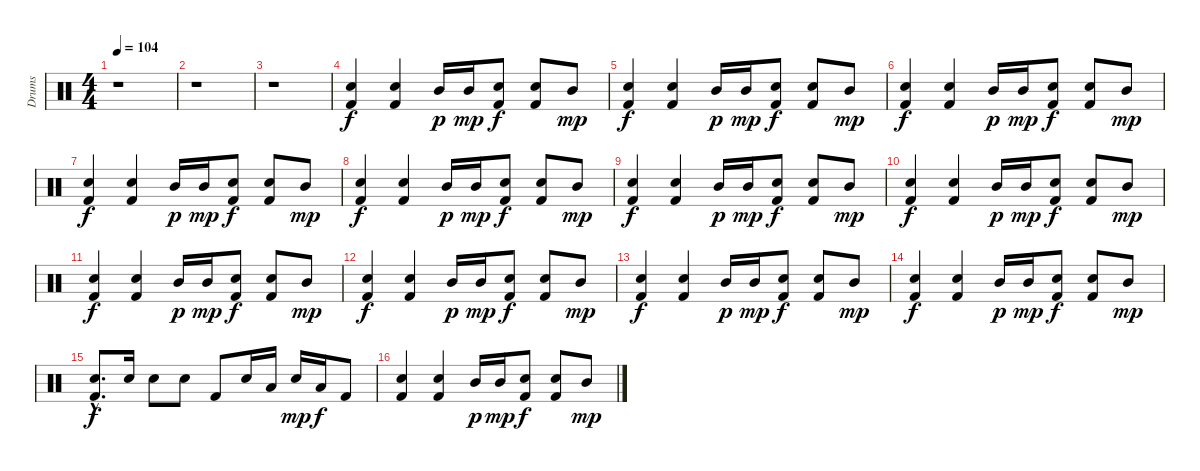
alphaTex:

\track ("Drums" "Drums") {instrument percussion}
\staff {score}
\articulation defaults
\ts (4 4)
\tempo 104
\clef neutral
\ks c
r.1{dy f} |
r.1 |
r.1 |
("Snare (hit) 2" "Kick (hit) 2").4 ("Snare (hit) 2" "Kick (hit) 2").4 "Mid Tom (hit)".16{dy p} "Mid Tom (hit)".16{dy mp} ("Snare (hit) 2" "Kick (hit) 2").8{dy f} ("Snare (hit) 2" "Kick (hit) 2").8 "Mid Tom (hit)".8{dy mp} |
("Snare (hit) 2" "Kick (hit) 2").4{dy f} ("Snare (hit) 2" "Kick (hit) 2").4 "Mid Tom (hit)".16{dy p} "Mid Tom (hit)".16{dy mp} ("Snare (hit) 2" "Kick (hit) 2").8{dy f} ("Snare (hit) 2" "Kick (hit) 2").8 "Mid Tom (hit)".8{dy mp} |
("Snare (hit) 2" "Kick (hit) 2").4{dy f} ("Snare (hit) 2" "Kick (hit) 2").4 "Mid Tom (hit)".16{dy p} "Mid Tom (hit)".16{dy mp} ("Snare (hit) 2" "Kick (hit) 2").8{dy f} ("Snare (hit) 2" "Kick (hit) 2").8 "Mid Tom (hit)".8{dy mp} |
("Snare (hit) 2" "Kick (hit) 2").4{dy f} ("Snare (hit) 2" "Kick (hit) 2").4 "Mid Tom (hit)".16{dy p} "Mid Tom (hit)".16{dy mp} ("Snare (hit) 2" "Kick (hit) 2").8{dy f} ("Snare (hit) 2" "Kick (hit) 2").8 "Mid Tom (hit)".8{dy mp} |
("Snare (hit) 2" "Kick (hit) 2").4{dy f} ("Snare (hit) 2" "Kick (hit) 2").4 "Mid Tom (hit)".16{dy p} "Mid Tom (hit)".16{dy mp} ("Snare (hit) 2" "Kick (hit) 2").8{dy f} ("Snare (hit) 2" "Kick (hit) 2").8 "Mid Tom (hit)".8{dy mp} |
("Snare (hit) 2" "Kick (hit) 2").4{dy f} ("Snare (hit) 2" "Kick (hit) 2").4 "Mid Tom (hit)".16{dy p} "Mid Tom (hit)".16{dy mp} ("Snare (hit) 2" "Kick (hit) 2").8{dy f} ("Snare (hit) 2" "Kick (hit) 2").8 "Mid Tom (hit)".8{dy mp} |
("Snare (hit) 2" "Kick (hit) 2").4{dy f} ("Snare (hit) 2" "Kick (hit) 2").4 "Mid Tom (hit)".16{dy p} "Mid Tom (hit)".16{dy mp} ("Snare (hit) 2" "Kick (hit) 2").8{dy f} ("Snare (hit) 2" "Kick (hit) 2").8 "Mid Tom (hit)".8{dy mp} |
("Snare (hit) 2" "Kick (hit) 2").4{dy f} ("Snare (hit) 2" "Kick (hit) 2").4 "Mid Tom (hit)".16{dy p} "Mid Tom (hit)".16{dy mp} ("Snare (hit) 2" "Kick (hit) 2").8{dy f} ("Snare (hit) 2" "Kick (hit) 2").8 "Mid Tom (hit)".8{dy mp} |
("Snare (hit) 2" "Kick (hit) 2").4{dy f} ("Snare (hit) 2" "Kick (hit) 2").4 "Mid Tom (hit)".16{dy p} "Mid Tom (hit)".16{dy mp} ("Snare (hit) 2" "Kick (hit) 2").8{dy f} ("Snare (hit) 2" "Kick (hit) 2").8 "Mid Tom (hit)".8{dy mp} |
("Snare (hit) 2" "Kick (hit) 2").4{dy f} ("Snare (hit) 2" "Kick (hit) 2").4 "Mid Tom (hit)".16{dy p} "Mid Tom (hit)".16{dy mp} ("Snare (hit) 2" "Kick (hit) 2").8{dy f} ("Snare (hit) 2" "Kick (hit) 2").8 "Mid Tom (hit)".8{dy mp} |
("Snare (hit) 2" "Kick (hit) 2").4{dy f} ("Snare (hit) 2" "Kick (hit) 2").4 "Mid Tom (hit)".16{dy p} "Mid Tom (hit)".16{dy mp} ("Snare (hit) 2" "Kick (hit) 2").8{dy f} ("Snare (hit) 2" "Kick (hit) 2").8 "Mid Tom (hit)".8{dy mp} |
("Snare (hit) 2"{hac} "Kick (hit) 2"{hac}).8{d dy f} "Snare (hit) 2".16 "Snare (hit) 2".8 "Snare (hit) 2".8 "Kick (hit) 2".8 "Snare (hit) 2".16 "Low Floor Tom (hit)".16 "Snare (hit) 2".16{dy mp} "Low Floor Tom (hit)".16{dy f} "Kick (hit) 2".8 |
("Snare (hit) 2" "Kick (hit) 2").4 ("Snare (hit) 2" "Kick (hit) 2").4 "Mid Tom (hit)".16{dy p} "Mid Tom (hit)".16{dy mp} ("Snare (hit) 2" "Kick (hit) 2").8{dy f} ("Snare (hit) 2" "Kick (hit) 2").8 "Mid Tom (hit)".8{dy mp}
